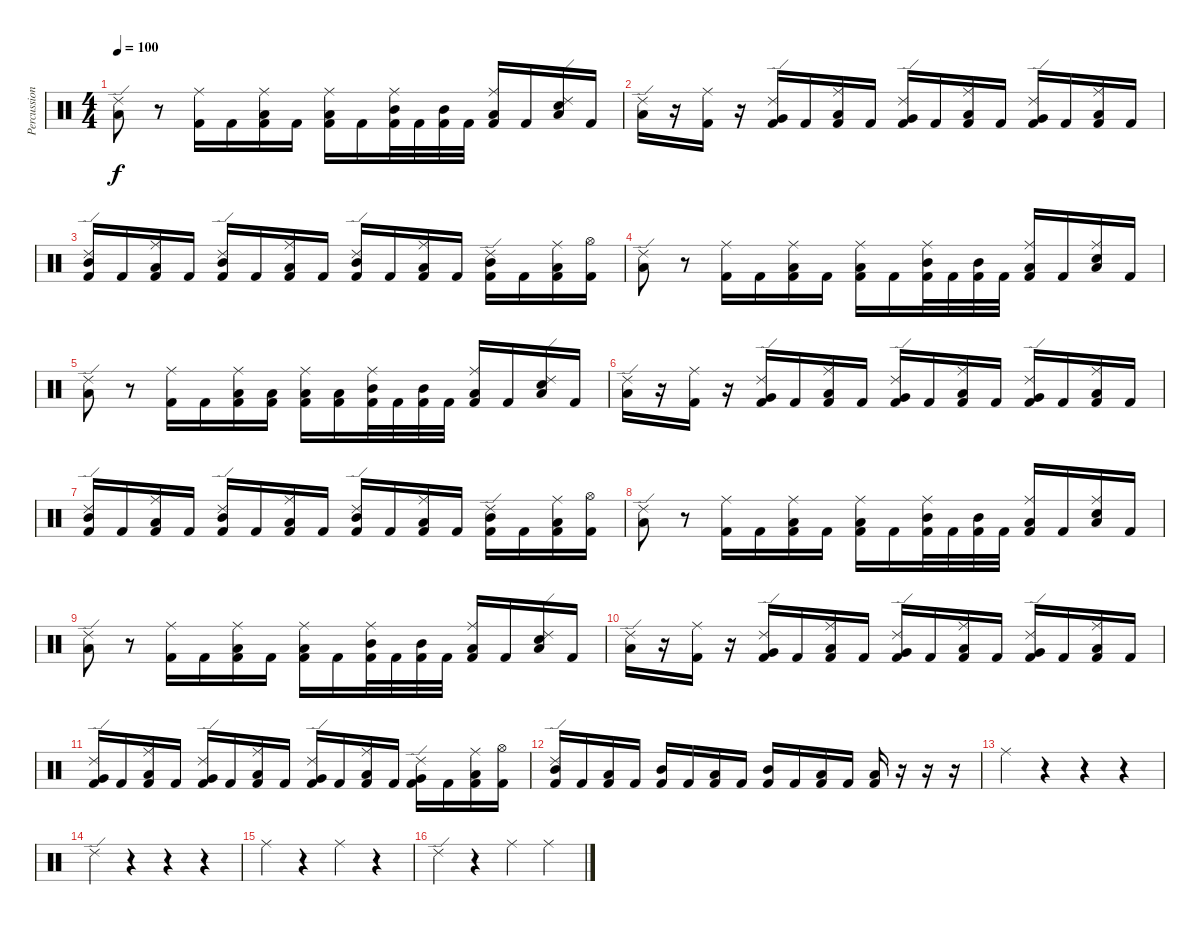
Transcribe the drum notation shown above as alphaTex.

\track ("Percussion" "Percussion") {instrument percussion}
\staff {score}
\articulation defaults
\ts (4 4)
\tempo 100
\clef neutral
\ks c
("Ride (edge) 2" "Low Tom (hit)").8{dy f} r.8 ("Ride (middle)" "Kick (hit) 2").16 "Kick (hit) 2".16 ("Ride (middle)" "Low Tom (hit)" "Kick (hit) 2").16 "Kick (hit) 2".16 ("Ride (middle)" "Low Tom (hit)" "Kick (hit) 2").16 "Kick (hit) 2".16 ("Ride (middle)" "Mid Tom (hit)" "Kick (hit) 2").32 "Kick (hit) 2".32 ("Mid Tom (hit)" "Kick (hit) 2").32 "Kick (hit) 2".32 ("Ride (middle)" "Low Tom (hit)" "Kick (hit) 2").16 "Kick (hit) 2".16 ("Ride (edge) 2" "Low Tom (hit)" "Electric Snare (hit)").16 "Kick (hit) 2".16 |
("Ride (edge) 2" "Low Tom (hit)").16 r.16 ("Ride (middle)" "Kick (hit) 2").16 r.16 ("Ride (edge) 2" "Very Low Tom (hit)" "Kick (hit) 2").16 "Kick (hit) 2".16 ("Ride (middle)" "Low Tom (hit)" "Kick (hit) 2").16 "Kick (hit) 2".16 ("Ride (edge) 2" "Very Low Tom (hit)" "Kick (hit) 2").16 "Kick (hit) 2".16 ("Ride (middle)" "Low Tom (hit)" "Kick (hit) 2").16 "Kick (hit) 2".16 ("Ride (edge) 2" "Very Low Tom (hit)" "Kick (hit) 2").16 "Kick (hit) 2".16 ("Ride (middle)" "Low Tom (hit)" "Kick (hit) 2").16 "Kick (hit) 2".16 |
("Ride (edge) 2" "Mid Tom (hit)" "Kick (hit) 2").16 "Kick (hit) 2".16 ("Ride (middle)" "Low Tom (hit)" "Kick (hit) 2").16 "Kick (hit) 2".16 ("Ride (edge) 2" "Mid Tom (hit)" "Kick (hit) 2").16 "Kick (hit) 2".16 ("Ride (middle)" "Low Tom (hit)" "Kick (hit) 2").16 "Kick (hit) 2".16 ("Ride (edge) 2" "Mid Tom (hit)" "Kick (hit) 2").16 "Kick (hit) 2".16 ("Ride (middle)" "Low Tom (hit)" "Kick (hit) 2").16 "Kick (hit) 2".16 ("Ride (edge) 2" "Mid Tom (hit)" "Kick (hit) 2").16 "Kick (hit) 2".16 ("Ride (middle)" "Low Tom (hit)" "Kick (hit) 2").16 ("Hi-Hat (open)" "Kick (hit) 2").16 |
("Ride (edge) 2" "Low Tom (hit)").8 r.8 ("Ride (middle)" "Kick (hit) 2").16 "Kick (hit) 2".16 ("Ride (middle)" "Low Tom (hit)" "Kick (hit) 2").16 "Kick (hit) 2".16 ("Ride (middle)" "Low Tom (hit)" "Kick (hit) 2").16 "Kick (hit) 2".16 ("Ride (middle)" "Mid Tom (hit)" "Kick (hit) 2").32 "Kick (hit) 2".32 ("Mid Tom (hit)" "Kick (hit) 2").32 "Kick (hit) 2".32 ("Ride (middle)" "Low Tom (hit)" "Kick (hit) 2").16 "Kick (hit) 2".16 ("Ride (middle)" "Low Tom (hit)" "Electric Snare (hit)").16 "Kick (hit) 2".16 |
("Ride (edge) 2" "Low Tom (hit)").8 r.8 ("Ride (middle)" "Kick (hit) 2").16 "Kick (hit) 2".16 ("Ride (middle)" "Low Tom (hit)" "Kick (hit) 2").16 ("Low Tom (hit)" "Kick (hit) 2").16 ("Ride (middle)" "Low Tom (hit)" "Kick (hit) 2").16 ("Low Tom (hit)" "Kick (hit) 2").16 ("Ride (middle)" "Mid Tom (hit)" "Kick (hit) 2").32 "Kick (hit) 2".32 ("Mid Tom (hit)" "Kick (hit) 2").32 "Kick (hit) 2".32 ("Ride (middle)" "Low Tom (hit)" "Kick (hit) 2").16 "Kick (hit) 2".16 ("Ride (edge) 2" "Low Tom (hit)" "Electric Snare (hit)").16 "Kick (hit) 2".16 |
("Ride (edge) 2" "Low Tom (hit)").16 r.16 ("Ride (middle)" "Kick (hit) 2").16 r.16 ("Ride (edge) 2" "Very Low Tom (hit)" "Kick (hit) 2").16 "Kick (hit) 2".16 ("Ride (middle)" "Low Tom (hit)" "Kick (hit) 2").16 "Kick (hit) 2".16 ("Ride (edge) 2" "Very Low Tom (hit)" "Kick (hit) 2").16 "Kick (hit) 2".16 ("Ride (middle)" "Low Tom (hit)" "Kick (hit) 2").16 "Kick (hit) 2".16 ("Ride (edge) 2" "Very Low Tom (hit)" "Kick (hit) 2").16 "Kick (hit) 2".16 ("Ride (middle)" "Low Tom (hit)" "Kick (hit) 2").16 "Kick (hit) 2".16 |
("Ride (edge) 2" "Mid Tom (hit)" "Kick (hit) 2").16 "Kick (hit) 2".16 ("Ride (middle)" "Low Tom (hit)" "Kick (hit) 2").16 "Kick (hit) 2".16 ("Ride (edge) 2" "Mid Tom (hit)" "Kick (hit) 2").16 "Kick (hit) 2".16 ("Ride (middle)" "Low Tom (hit)" "Kick (hit) 2").16 "Kick (hit) 2".16 ("Ride (edge) 2" "Mid Tom (hit)" "Kick (hit) 2").16 "Kick (hit) 2".16 ("Ride (middle)" "Low Tom (hit)" "Kick (hit) 2").16 "Kick (hit) 2".16 ("Ride (edge) 2" "Mid Tom (hit)" "Kick (hit) 2").16 "Kick (hit) 2".16 ("Ride (middle)" "Low Tom (hit)" "Kick (hit) 2").16 ("Hi-Hat (open)" "Kick (hit) 2").16 |
("Ride (edge) 2" "Low Tom (hit)").8 r.8 ("Ride (middle)" "Kick (hit) 2").16 "Kick (hit) 2".16 ("Ride (middle)" "Low Tom (hit)" "Kick (hit) 2").16 "Kick (hit) 2".16 ("Ride (middle)" "Low Tom (hit)" "Kick (hit) 2").16 "Kick (hit) 2".16 ("Ride (middle)" "Mid Tom (hit)" "Kick (hit) 2").32 "Kick (hit) 2".32 ("Mid Tom (hit)" "Kick (hit) 2").32 "Kick (hit) 2".32 ("Ride (middle)" "Low Tom (hit)" "Kick (hit) 2").16 "Kick (hit) 2".16 ("Ride (middle)" "Low Tom (hit)" "Electric Snare (hit)").16 "Kick (hit) 2".16 |
("Ride (edge) 2" "Low Tom (hit)").8 r.8 ("Ride (middle)" "Kick (hit) 2").16 "Kick (hit) 2".16 ("Ride (middle)" "Low Tom (hit)" "Kick (hit) 2").16 "Kick (hit) 2".16 ("Ride (middle)" "Low Tom (hit)" "Kick (hit) 2").16 "Kick (hit) 2".16 ("Ride (middle)" "Mid Tom (hit)" "Kick (hit) 2").32 "Kick (hit) 2".32 ("Mid Tom (hit)" "Kick (hit) 2").32 "Kick (hit) 2".32 ("Ride (middle)" "Low Tom (hit)" "Kick (hit) 2").16 "Kick (hit) 2".16 ("Ride (edge) 2" "Low Tom (hit)" "Electric Snare (hit)").16 "Kick (hit) 2".16 |
("Ride (edge) 2" "Low Tom (hit)").16 r.16 ("Ride (middle)" "Kick (hit) 2").16 r.16 ("Ride (edge) 2" "Very Low Tom (hit)" "Kick (hit) 2").16 "Kick (hit) 2".16 ("Ride (middle)" "Low Tom (hit)" "Kick (hit) 2").16 "Kick (hit) 2".16 ("Ride (edge) 2" "Very Low Tom (hit)" "Kick (hit) 2").16 "Kick (hit) 2".16 ("Ride (middle)" "Low Tom (hit)" "Kick (hit) 2").16 "Kick (hit) 2".16 ("Ride (edge) 2" "Very Low Tom (hit)" "Kick (hit) 2").16 "Kick (hit) 2".16 ("Ride (middle)" "Low Tom (hit)" "Kick (hit) 2").16 "Kick (hit) 2".16 |
("Ride (edge) 2" "Very Low Tom (hit)" "Kick (hit) 2").16 "Kick (hit) 2".16 ("Ride (middle)" "Low Tom (hit)" "Kick (hit) 2").16 "Kick (hit) 2".16 ("Ride (edge) 2" "Very Low Tom (hit)" "Kick (hit) 2").16 "Kick (hit) 2".16 ("Ride (middle)" "Low Tom (hit)" "Kick (hit) 2").16 "Kick (hit) 2".16 ("Ride (edge) 2" "Very Low Tom (hit)" "Kick (hit) 2").16 "Kick (hit) 2".16 ("Ride (middle)" "Low Tom (hit)" "Kick (hit) 2").16 "Kick (hit) 2".16 ("Ride (edge) 2" "Very Low Tom (hit)" "Kick (hit) 2").16 "Kick (hit) 2".16 ("Ride (middle)" "Low Tom (hit)" "Kick (hit) 2").16 ("Hi-Hat (open)" "Kick (hit) 2").16 |
("Ride (edge) 2" "Mid Tom (hit)" "Kick (hit) 2").16 "Kick (hit) 2".16 ("Low Tom (hit)" "Kick (hit) 2").16 "Kick (hit) 2".16 ("Mid Tom (hit)" "Kick (hit) 2").16 "Kick (hit) 2".16 ("Low Tom (hit)" "Kick (hit) 2").16 "Kick (hit) 2".16 ("Mid Tom (hit)" "Kick (hit) 2").16 "Kick (hit) 2".16 ("Low Tom (hit)" "Kick (hit) 2").16 "Kick (hit) 2".16 ("Low Tom (hit)" "Kick (hit) 2").16 r.16 r.16 r.16 |
"Ride (middle)".4{volume 8} r.4 r.4 r.4 |
"Ride (edge) 2".4 r.4 r.4 r.4 |
"Ride (middle)".4 r.4 "Ride (middle)".4 r.4 |
"Ride (edge) 2".4 r.4 "Ride (middle)".4 "Ride (middle)".4
